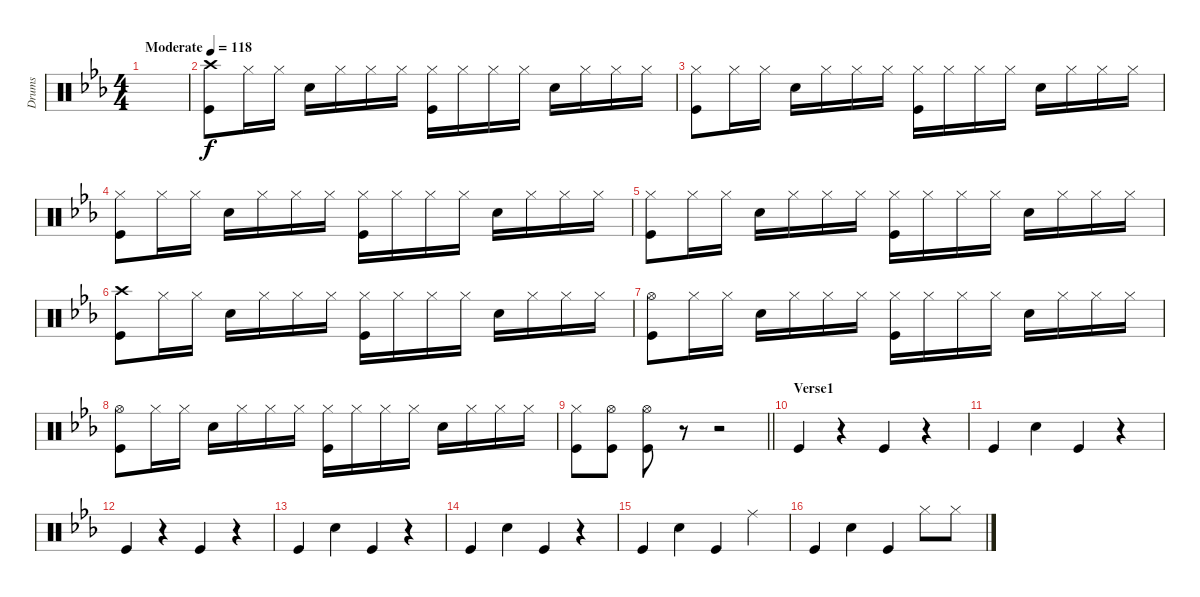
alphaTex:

\track ("Drums" "Drums") {instrument percussion}
\staff {score}
\articulation defaults
\ts (4 4)
\tempo (118 "Moderate")
\clef neutral
\ks eb
|
("Kick (hit)" "Crash high (hit)").8 "Hi-Hat (closed)".16 "Hi-Hat (closed)".16 "Snare (hit) 2".16 "Hi-Hat (closed)".16 "Hi-Hat (closed)".16 "Hi-Hat (closed)".16 ("Hi-Hat (closed)" "Kick (hit)").16 "Hi-Hat (closed)".16 "Hi-Hat (closed)".16 "Hi-Hat (closed)".16 "Snare (hit) 2".16 "Hi-Hat (closed)".16 "Hi-Hat (closed)".16 "Hi-Hat (closed)".16 |
("Kick (hit)" "Hi-Hat (closed)").8 "Hi-Hat (closed)".16 "Hi-Hat (closed)".16 "Snare (hit) 2".16 "Hi-Hat (closed)".16 "Hi-Hat (closed)".16 "Hi-Hat (closed)".16 ("Hi-Hat (closed)" "Kick (hit)").16 "Hi-Hat (closed)".16 "Hi-Hat (closed)".16 "Hi-Hat (closed)".16 "Snare (hit) 2".16 "Hi-Hat (closed)".16 "Hi-Hat (closed)".16 "Hi-Hat (closed)".16 |
("Kick (hit)" "Hi-Hat (closed)").8 "Hi-Hat (closed)".16 "Hi-Hat (closed)".16 "Snare (hit) 2".16 "Hi-Hat (closed)".16 "Hi-Hat (closed)".16 "Hi-Hat (closed)".16 ("Hi-Hat (closed)" "Kick (hit)").16 "Hi-Hat (closed)".16 "Hi-Hat (closed)".16 "Hi-Hat (closed)".16 "Snare (hit) 2".16 "Hi-Hat (closed)".16 "Hi-Hat (closed)".16 "Hi-Hat (closed)".16 |
("Kick (hit)" "Hi-Hat (closed)").8 "Hi-Hat (closed)".16 "Hi-Hat (closed)".16 "Snare (hit) 2".16 "Hi-Hat (closed)".16 "Hi-Hat (closed)".16 "Hi-Hat (closed)".16 ("Hi-Hat (closed)" "Kick (hit)").16 "Hi-Hat (closed)".16 "Hi-Hat (closed)".16 "Hi-Hat (closed)".16 "Snare (hit) 2".16 "Hi-Hat (closed)".16 "Hi-Hat (closed)".16 "Hi-Hat (closed)".16 |
("Kick (hit)" "Crash high (hit)").8 "Hi-Hat (closed)".16 "Hi-Hat (closed)".16 "Snare (hit) 2".16 "Hi-Hat (closed)".16 "Hi-Hat (closed)".16 "Hi-Hat (closed)".16 ("Hi-Hat (closed)" "Kick (hit)").16 "Hi-Hat (closed)".16 "Hi-Hat (closed)".16 "Hi-Hat (closed)".16 "Snare (hit) 2".16 "Hi-Hat (closed)".16 "Hi-Hat (closed)".16 "Hi-Hat (closed)".16 |
("Kick (hit)" "Hi-Hat (open)").8 "Hi-Hat (closed)".16 "Hi-Hat (closed)".16 "Snare (hit) 2".16 "Hi-Hat (closed)".16 "Hi-Hat (closed)".16 "Hi-Hat (closed)".16 ("Hi-Hat (closed)" "Kick (hit)").16 "Hi-Hat (closed)".16 "Hi-Hat (closed)".16 "Hi-Hat (closed)".16 "Snare (hit) 2".16 "Hi-Hat (closed)".16 "Hi-Hat (closed)".16 "Hi-Hat (closed)".16 |
("Kick (hit)" "Hi-Hat (open)").8 "Hi-Hat (closed)".16 "Hi-Hat (closed)".16 "Snare (hit) 2".16 "Hi-Hat (closed)".16 "Hi-Hat (closed)".16 "Hi-Hat (closed)".16 ("Hi-Hat (closed)" "Kick (hit)").16 "Hi-Hat (closed)".16 "Hi-Hat (closed)".16 "Hi-Hat (closed)".16 "Snare (hit) 2".16 "Hi-Hat (closed)".16 "Hi-Hat (closed)".16 "Hi-Hat (closed)".16 |
\barLineRight lightlight
("Hi-Hat (closed)" "Kick (hit)").8 ("Hi-Hat (open)" "Kick (hit)").8 ("Hi-Hat (open)" "Kick (hit)").8 r.8 r.2 |
\section ("" "Verse1")
"Kick (hit)".4 r.4 "Kick (hit)".4 r.4 |
"Kick (hit)".4 "Snare (hit) 2".4 "Kick (hit)".4 r.4 |
"Kick (hit)".4 r.4 "Kick (hit)".4 r.4 |
"Kick (hit)".4 "Snare (hit) 2".4 "Kick (hit)".4 r.4 |
"Kick (hit)".4 "Snare (hit) 2".4 "Kick (hit)".4 r.4 |
"Kick (hit)".4 "Snare (hit) 2".4 "Kick (hit)".4 "Ride (middle)".4 |
"Kick (hit)".4 "Snare (hit) 2".4 "Kick (hit)".4 "Hi-Hat (closed)".8 "Hi-Hat (closed)".8
